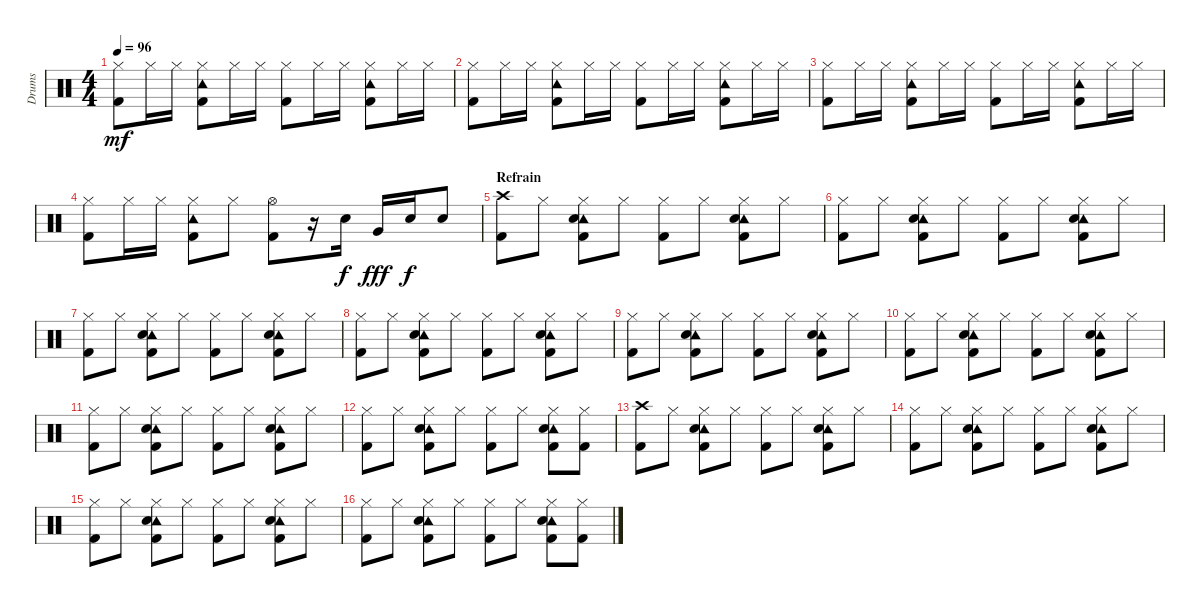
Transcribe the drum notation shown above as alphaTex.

\track ("Drums" "Drums") {instrument percussion}
\staff {score}
\articulation defaults
\ts (4 4)
\tempo 96
\clef neutral
\ks c
("Hi-Hat (closed)" "Kick (hit) 2").8{dy mf} "Hi-Hat (closed)".16 "Hi-Hat (closed)".16 ("Hi-Hat (closed)" "Tambourine (hit)" "Kick (hit) 2").8 "Hi-Hat (closed)".16 "Hi-Hat (closed)".16 ("Hi-Hat (closed)" "Kick (hit) 2").8 "Hi-Hat (closed)".16 "Hi-Hat (closed)".16 ("Hi-Hat (closed)" "Tambourine (hit)" "Kick (hit) 2").8 "Hi-Hat (closed)".16 "Hi-Hat (closed)".16 |
("Hi-Hat (closed)" "Kick (hit) 2").8 "Hi-Hat (closed)".16 "Hi-Hat (closed)".16 ("Hi-Hat (closed)" "Tambourine (hit)" "Kick (hit) 2").8 "Hi-Hat (closed)".16 "Hi-Hat (closed)".16 ("Hi-Hat (closed)" "Kick (hit) 2").8 "Hi-Hat (closed)".16 "Hi-Hat (closed)".16 ("Hi-Hat (closed)" "Tambourine (hit)" "Kick (hit) 2").8 "Hi-Hat (closed)".16 "Hi-Hat (closed)".16 |
("Hi-Hat (closed)" "Kick (hit) 2").8 "Hi-Hat (closed)".16 "Hi-Hat (closed)".16 ("Hi-Hat (closed)" "Tambourine (hit)" "Kick (hit) 2").8 "Hi-Hat (closed)".16 "Hi-Hat (closed)".16 ("Hi-Hat (closed)" "Kick (hit) 2").8 "Hi-Hat (closed)".16 "Hi-Hat (closed)".16 ("Hi-Hat (closed)" "Tambourine (hit)" "Kick (hit) 2").8 "Hi-Hat (closed)".16 "Hi-Hat (closed)".16 |
("Hi-Hat (closed)" "Kick (hit) 2").8 "Hi-Hat (closed)".16 "Hi-Hat (closed)".16 ("Hi-Hat (closed)" "Tambourine (hit)" "Kick (hit) 2").8 "Hi-Hat (closed)".8 ("Hi-Hat (open)" "Kick (hit) 2").8 r.16 "Snare (hit) 2".16{dy f} "Very Low Tom (hit)".16{dy fff} "Snare (hit) 2".16{dy f} "Snare (hit) 2".8 |
\section ("" "Refrain")
("Crash high (hit)" "Kick (hit) 2").8 "Hi-Hat (closed)".8 ("Hi-Hat (closed)" "Tambourine (hit)" "Snare (hit) 2" "Kick (hit) 2").8 "Hi-Hat (closed)".8 ("Hi-Hat (closed)" "Kick (hit) 2").8 "Hi-Hat (closed)".8 ("Hi-Hat (closed)" "Tambourine (hit)" "Snare (hit) 2" "Kick (hit) 2").8 "Hi-Hat (closed)".8 |
("Hi-Hat (closed)" "Kick (hit) 2").8 "Hi-Hat (closed)".8 ("Hi-Hat (closed)" "Tambourine (hit)" "Snare (hit) 2" "Kick (hit) 2").8 "Hi-Hat (closed)".8 ("Hi-Hat (closed)" "Kick (hit) 2").8 "Hi-Hat (closed)".8 ("Hi-Hat (closed)" "Tambourine (hit)" "Snare (hit) 2" "Kick (hit) 2").8 "Hi-Hat (closed)".8 |
("Hi-Hat (closed)" "Kick (hit) 2").8 "Hi-Hat (closed)".8 ("Hi-Hat (closed)" "Tambourine (hit)" "Snare (hit) 2" "Kick (hit) 2").8 "Hi-Hat (closed)".8 ("Hi-Hat (closed)" "Kick (hit) 2").8 "Hi-Hat (closed)".8 ("Hi-Hat (closed)" "Tambourine (hit)" "Snare (hit) 2" "Kick (hit) 2").8 "Hi-Hat (closed)".8 |
("Hi-Hat (closed)" "Kick (hit) 2").8 "Hi-Hat (closed)".8 ("Hi-Hat (closed)" "Tambourine (hit)" "Snare (hit) 2" "Kick (hit) 2").8 "Hi-Hat (closed)".8 ("Hi-Hat (closed)" "Kick (hit) 2").8 "Hi-Hat (closed)".8 ("Hi-Hat (closed)" "Tambourine (hit)" "Snare (hit) 2" "Kick (hit) 2").8 "Hi-Hat (closed)".8 |
("Hi-Hat (closed)" "Kick (hit) 2").8 "Hi-Hat (closed)".8 ("Hi-Hat (closed)" "Tambourine (hit)" "Snare (hit) 2" "Kick (hit) 2").8 "Hi-Hat (closed)".8 ("Hi-Hat (closed)" "Kick (hit) 2").8 "Hi-Hat (closed)".8 ("Hi-Hat (closed)" "Tambourine (hit)" "Snare (hit) 2" "Kick (hit) 2").8 "Hi-Hat (closed)".8 |
("Hi-Hat (closed)" "Kick (hit) 2").8 "Hi-Hat (closed)".8 ("Hi-Hat (closed)" "Tambourine (hit)" "Snare (hit) 2" "Kick (hit) 2").8 "Hi-Hat (closed)".8 ("Hi-Hat (closed)" "Kick (hit) 2").8 "Hi-Hat (closed)".8 ("Hi-Hat (closed)" "Tambourine (hit)" "Snare (hit) 2" "Kick (hit) 2").8 "Hi-Hat (closed)".8 |
("Hi-Hat (closed)" "Kick (hit) 2").8 "Hi-Hat (closed)".8 ("Hi-Hat (closed)" "Tambourine (hit)" "Snare (hit) 2" "Kick (hit) 2").8 "Hi-Hat (closed)".8 ("Hi-Hat (closed)" "Kick (hit) 2").8 "Hi-Hat (closed)".8 ("Hi-Hat (closed)" "Tambourine (hit)" "Snare (hit) 2" "Kick (hit) 2").8 "Hi-Hat (closed)".8 |
("Hi-Hat (closed)" "Kick (hit) 2").8 "Hi-Hat (closed)".8 ("Hi-Hat (closed)" "Tambourine (hit)" "Snare (hit) 2" "Kick (hit) 2").8 "Hi-Hat (closed)".8 ("Hi-Hat (closed)" "Kick (hit) 2").8 "Hi-Hat (closed)".8 ("Hi-Hat (closed)" "Tambourine (hit)" "Snare (hit) 2" "Kick (hit) 2").8 ("Hi-Hat (closed)" "Kick (hit) 2").8 |
("Crash high (hit)" "Kick (hit) 2").8 "Hi-Hat (closed)".8 ("Hi-Hat (closed)" "Tambourine (hit)" "Snare (hit) 2" "Kick (hit) 2").8 "Hi-Hat (closed)".8 ("Hi-Hat (closed)" "Kick (hit) 2").8 "Hi-Hat (closed)".8 ("Hi-Hat (closed)" "Tambourine (hit)" "Snare (hit) 2" "Kick (hit) 2").8 "Hi-Hat (closed)".8 |
("Hi-Hat (closed)" "Kick (hit) 2").8 "Hi-Hat (closed)".8 ("Hi-Hat (closed)" "Tambourine (hit)" "Snare (hit) 2" "Kick (hit) 2").8 "Hi-Hat (closed)".8 ("Hi-Hat (closed)" "Kick (hit) 2").8 "Hi-Hat (closed)".8 ("Hi-Hat (closed)" "Tambourine (hit)" "Snare (hit) 2" "Kick (hit) 2").8 "Hi-Hat (closed)".8 |
("Hi-Hat (closed)" "Kick (hit) 2").8 "Hi-Hat (closed)".8 ("Hi-Hat (closed)" "Tambourine (hit)" "Snare (hit) 2" "Kick (hit) 2").8 "Hi-Hat (closed)".8 ("Hi-Hat (closed)" "Kick (hit) 2").8 "Hi-Hat (closed)".8 ("Hi-Hat (closed)" "Tambourine (hit)" "Snare (hit) 2" "Kick (hit) 2").8 "Hi-Hat (closed)".8 |
("Hi-Hat (closed)" "Kick (hit) 2").8 "Hi-Hat (closed)".8 ("Hi-Hat (closed)" "Tambourine (hit)" "Snare (hit) 2" "Kick (hit) 2").8 "Hi-Hat (closed)".8 ("Hi-Hat (closed)" "Kick (hit) 2").8 "Hi-Hat (closed)".8 ("Hi-Hat (closed)" "Tambourine (hit)" "Snare (hit) 2" "Kick (hit) 2").8 ("Hi-Hat (closed)" "Kick (hit) 2").8
